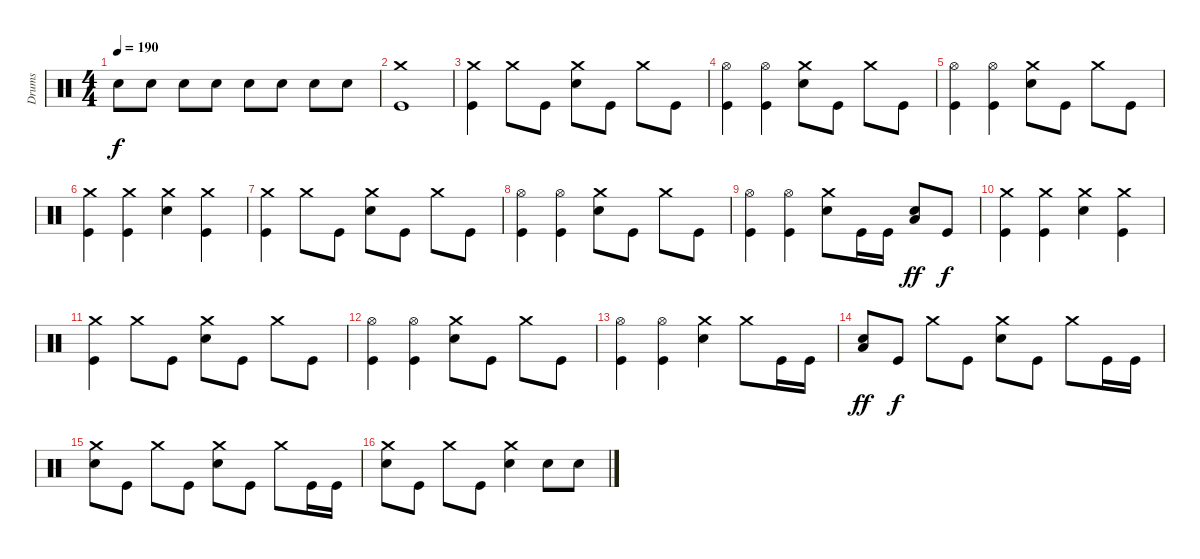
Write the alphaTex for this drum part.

\track ("Drums" "Drums") {instrument percussion}
\staff {score}
\articulation defaults
\ts (4 4)
\tempo 190
\clef neutral
\ks c "Electric Snare (hit)".8{dy f} "Electric Snare (hit)".8 "Electric Snare (hit)".8 "Electric Snare (hit)".8 "Electric Snare (hit)".8 "Electric Snare (hit)".8 "Electric Snare (hit)".8 "Electric Snare (hit)".8
|
("Crash medium (hit)" "Kick (hit)").1 |
("Crash medium (hit)" "Kick (hit)").4 "Crash medium (hit)".8 "Kick (hit)".8 ("Crash medium (hit)" "Electric Snare (hit)").8 "Kick (hit)".8 "Crash medium (hit)".8 "Kick (hit)".8 |
("Hi-Hat (open)" "Kick (hit)").4 ("Hi-Hat (open)" "Kick (hit)").4 ("Crash medium (hit)" "Electric Snare (hit)").8 "Kick (hit)".8 "Crash medium (hit)".8 "Kick (hit)".8 |
("Hi-Hat (open)" "Kick (hit)").4 ("Hi-Hat (open)" "Kick (hit)").4 ("Crash medium (hit)" "Electric Snare (hit)").8 "Kick (hit)".8 "Crash medium (hit)".8 "Kick (hit)".8 |
("Crash medium (hit)" "Kick (hit)").4 ("Crash medium (hit)" "Kick (hit)").4 ("Crash medium (hit)" "Electric Snare (hit)").4 ("Crash medium (hit)" "Kick (hit)").4 |
("Crash medium (hit)" "Kick (hit)").4 "Crash medium (hit)".8 "Kick (hit)".8 ("Crash medium (hit)" "Electric Snare (hit)").8 "Kick (hit)".8 "Crash medium (hit)".8 "Kick (hit)".8 |
("Hi-Hat (open)" "Kick (hit)").4 ("Hi-Hat (open)" "Kick (hit)").4 ("Crash medium (hit)" "Electric Snare (hit)").8 "Kick (hit)".8 "Crash medium (hit)".8 "Kick (hit)".8 |
("Hi-Hat (open)" "Kick (hit)").4 ("Hi-Hat (open)" "Kick (hit)").4 ("Crash medium (hit)" "Electric Snare (hit)").8 "Kick (hit)".16 "Kick (hit)".16 ("Low Tom (hit)" "Electric Snare (hit)").8{dy ff} "Kick (hit)".8{dy f} |
("Crash medium (hit)" "Kick (hit)").4 ("Crash medium (hit)" "Kick (hit)").4 ("Crash medium (hit)" "Electric Snare (hit)").4 ("Crash medium (hit)" "Kick (hit)").4 |
("Crash medium (hit)" "Kick (hit)").4 "Crash medium (hit)".8 "Kick (hit)".8 ("Crash medium (hit)" "Electric Snare (hit)").8 "Kick (hit)".8 "Crash medium (hit)".8 "Kick (hit)".8 |
("Hi-Hat (open)" "Kick (hit)").4 ("Hi-Hat (open)" "Kick (hit)").4 ("Crash medium (hit)" "Electric Snare (hit)").8 "Kick (hit)".8 "Crash medium (hit)".8 "Kick (hit)".8 |
("Hi-Hat (open)" "Kick (hit)").4 ("Hi-Hat (open)" "Kick (hit)").4 ("Crash medium (hit)" "Electric Snare (hit)").4 "Crash medium (hit)".8 "Kick (hit)".16 "Kick (hit)".16 |
("Low Tom (hit)" "Electric Snare (hit)").8{dy ff} "Kick (hit)".8{dy f} "Crash medium (hit)".8 "Kick (hit)".8 ("Crash medium (hit)" "Electric Snare (hit)").8 "Kick (hit)".8 "Crash medium (hit)".8 "Kick (hit)".16 "Kick (hit)".16 |
("Crash medium (hit)" "Electric Snare (hit)").8 "Kick (hit)".8 "Crash medium (hit)".8 "Kick (hit)".8 ("Crash medium (hit)" "Electric Snare (hit)").8 "Kick (hit)".8 "Crash medium (hit)".8 "Kick (hit)".16 "Kick (hit)".16 |
("Crash medium (hit)" "Electric Snare (hit)").8 "Kick (hit)".8 "Crash medium (hit)".8 "Kick (hit)".8 ("Crash medium (hit)" "Electric Snare (hit)").4 "Electric Snare (hit)".8 "Electric Snare (hit)".8
